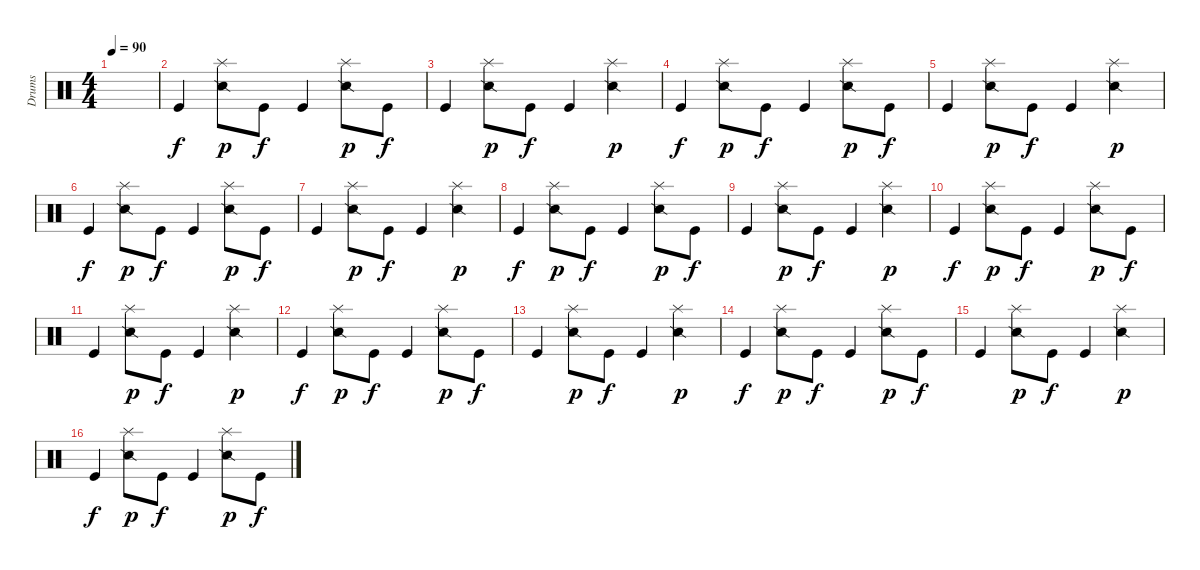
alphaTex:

\track ("Drums" "Drums") {instrument percussion}
\staff {score}
\articulation defaults
\ts (4 4)
\tempo 90
\clef neutral
\ks c
|
"Kick (hit)".4 ("Splash (hit)" "Snare (side stick) 2").8{dy p} "Kick (hit)".8{dy f} "Kick (hit)".4 ("Splash (hit)" "Snare (side stick) 2").8{dy p} "Kick (hit)".8{dy f} |
"Kick (hit)".4 ("Splash (hit)" "Snare (side stick) 2").8{dy p} "Kick (hit)".8{dy f} "Kick (hit)".4 ("Splash (hit)" "Snare (side stick) 2").4{dy p} |
"Kick (hit)".4{dy f} ("Splash (hit)" "Snare (side stick) 2").8{dy p} "Kick (hit)".8{dy f} "Kick (hit)".4 ("Splash (hit)" "Snare (side stick) 2").8{dy p} "Kick (hit)".8{dy f} |
"Kick (hit)".4 ("Splash (hit)" "Snare (side stick) 2").8{dy p} "Kick (hit)".8{dy f} "Kick (hit)".4 ("Splash (hit)" "Snare (side stick) 2").4{dy p} |
"Kick (hit)".4{dy f} ("Splash (hit)" "Snare (side stick) 2").8{dy p} "Kick (hit)".8{dy f} "Kick (hit)".4 ("Splash (hit)" "Snare (side stick) 2").8{dy p} "Kick (hit)".8{dy f} |
"Kick (hit)".4 ("Splash (hit)" "Snare (side stick) 2").8{dy p} "Kick (hit)".8{dy f} "Kick (hit)".4 ("Splash (hit)" "Snare (side stick) 2").4{dy p} |
"Kick (hit)".4{dy f} ("Splash (hit)" "Snare (side stick) 2").8{dy p} "Kick (hit)".8{dy f} "Kick (hit)".4 ("Splash (hit)" "Snare (side stick) 2").8{dy p} "Kick (hit)".8{dy f} |
"Kick (hit)".4 ("Splash (hit)" "Snare (side stick) 2").8{dy p} "Kick (hit)".8{dy f} "Kick (hit)".4 ("Splash (hit)" "Snare (side stick) 2").4{dy p} |
"Kick (hit)".4{dy f} ("Splash (hit)" "Snare (side stick) 2").8{dy p} "Kick (hit)".8{dy f} "Kick (hit)".4 ("Splash (hit)" "Snare (side stick) 2").8{dy p} "Kick (hit)".8{dy f} |
"Kick (hit)".4 ("Splash (hit)" "Snare (side stick) 2").8{dy p} "Kick (hit)".8{dy f} "Kick (hit)".4 ("Splash (hit)" "Snare (side stick) 2").4{dy p} |
"Kick (hit)".4{dy f} ("Splash (hit)" "Snare (side stick) 2").8{dy p} "Kick (hit)".8{dy f} "Kick (hit)".4 ("Splash (hit)" "Snare (side stick) 2").8{dy p} "Kick (hit)".8{dy f} |
"Kick (hit)".4 ("Splash (hit)" "Snare (side stick) 2").8{dy p} "Kick (hit)".8{dy f} "Kick (hit)".4 ("Splash (hit)" "Snare (side stick) 2").4{dy p} |
"Kick (hit)".4{dy f} ("Splash (hit)" "Snare (side stick) 2").8{dy p} "Kick (hit)".8{dy f} "Kick (hit)".4 ("Splash (hit)" "Snare (side stick) 2").8{dy p} "Kick (hit)".8{dy f} |
"Kick (hit)".4 ("Splash (hit)" "Snare (side stick) 2").8{dy p} "Kick (hit)".8{dy f} "Kick (hit)".4 ("Splash (hit)" "Snare (side stick) 2").4{dy p} |
"Kick (hit)".4{dy f} ("Splash (hit)" "Snare (side stick) 2").8{dy p} "Kick (hit)".8{dy f} "Kick (hit)".4 ("Splash (hit)" "Snare (side stick) 2").8{dy p} "Kick (hit)".8{dy f}
